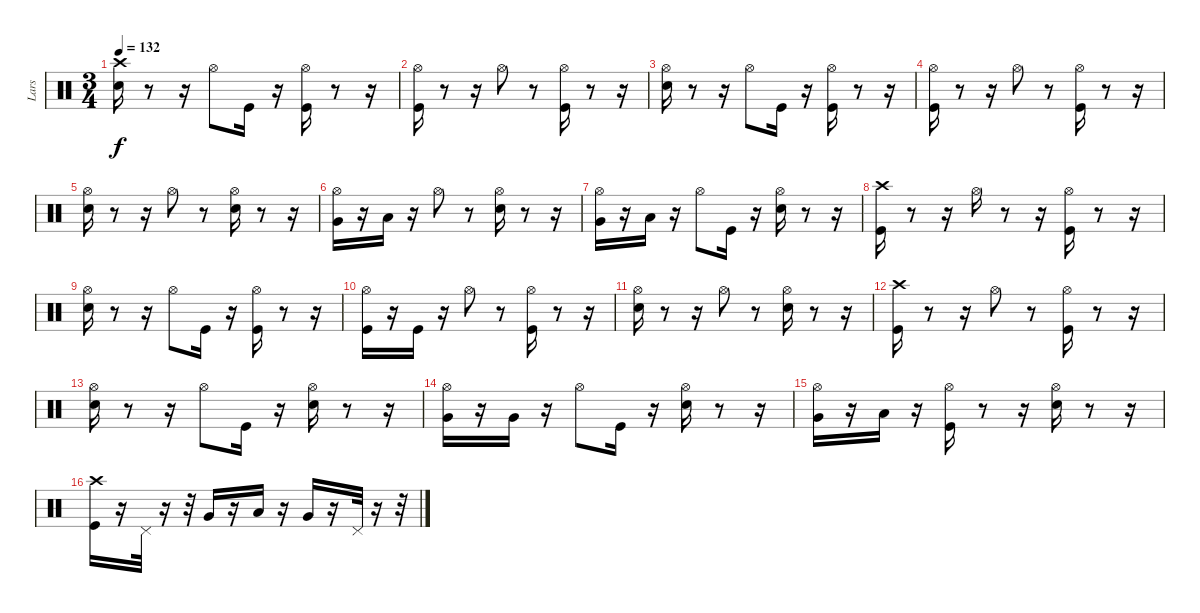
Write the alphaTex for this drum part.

\track ("Lars" "Lars") {instrument percussion}
\staff {score}
\articulation defaults
\ts (3 4)
\tempo 132
\clef neutral
\ks c
("Snare (hit) 2" "Crash high (hit)").16{dy f} r.8 r.16 "Hi-Hat (open)".8 "Kick (hit)".16 r.16 ("Hi-Hat (open)" "Kick (hit)").16 r.8 r.16 |
("Kick (hit)" "Hi-Hat (open)").16 r.8 r.16 "Hi-Hat (open)".8 r.8 ("Hi-Hat (open)" "Kick (hit)").16 r.8 r.16 |
("Hi-Hat (open)" "Snare (hit) 2").16 r.8 r.16 "Hi-Hat (open)".8 "Kick (hit)".16 r.16 ("Hi-Hat (open)" "Kick (hit)").16 r.8 r.16 |
("Hi-Hat (open)" "Kick (hit)").16 r.8 r.16 "Hi-Hat (open)".8 r.8 ("Kick (hit)" "Hi-Hat (open)").16 r.8 r.16 |
("Hi-Hat (open)" "Snare (hit) 2").16 r.8 r.16 "Hi-Hat (open)".8 r.8 ("Snare (hit) 2" "Hi-Hat (open)").16 r.8 r.16 |
("Hi-Hat (open)" "Very Low Tom (hit)").16 r.16 "Low Floor Tom (hit)".16 r.16 "Hi-Hat (open)".8 r.8 ("Hi-Hat (open)" "Snare (hit) 2").16 r.8 r.16 |
("Hi-Hat (open)" "Very Low Tom (hit)").16 r.16 "Low Floor Tom (hit)".16 r.16 "Hi-Hat (open)".8 "Kick (hit)".16 r.16 ("Hi-Hat (open)" "Snare (hit) 2").16 r.8 r.16 |
("Kick (hit)" "Crash high (hit)").16 r.8 r.16 "Hi-Hat (open)".16 r.8 r.16 ("Hi-Hat (open)" "Kick (hit)").16 r.8 r.16 |
("Snare (hit) 2" "Hi-Hat (open)").16 r.8 r.16 "Hi-Hat (open)".8 "Kick (hit)".16 r.16 ("Hi-Hat (open)" "Kick (hit)").16 r.8 r.16 |
("Kick (hit)" "Hi-Hat (open)").16 r.16 "Kick (hit)".16 r.16 "Hi-Hat (open)".8 r.8 ("Hi-Hat (open)" "Kick (hit)").16 r.8 r.16 |
("Hi-Hat (open)" "Snare (hit) 2").16 r.8 r.16 "Hi-Hat (open)".8 r.8 ("Hi-Hat (open)" "Snare (hit) 2").16 r.8 r.16 |
("Kick (hit)" "Crash high (hit)").16 r.8 r.16 "Hi-Hat (open)".8 r.8 ("Kick (hit)" "Hi-Hat (open)").16 r.8 r.16 |
("Hi-Hat (open)" "Snare (hit) 2").16 r.8 r.16 "Hi-Hat (open)".8 "Kick (hit)".16 r.16 ("Hi-Hat (open)" "Snare (hit) 2").16 r.8 r.16 |
("Hi-Hat (open)" "Very Low Tom (hit)").16 r.16 "Very Low Tom (hit)".16 r.16 "Hi-Hat (open)".8 "Kick (hit)".16 r.16 ("Hi-Hat (open)" "Snare (hit) 2").16 r.8 r.16 |
("Hi-Hat (open)" "Very Low Tom (hit)").16 r.16 "Low Floor Tom (hit)".16 r.16 ("Hi-Hat (open)" "Kick (hit)").16 r.8 r.16 ("Hi-Hat (open)" "Snare (hit) 2").16 r.8 r.16 |
("Crash high (hit)" "Kick (hit)").16 r.16 "Pedal Hi-Hat (hit)".32 r.16 r.32 "Very Low Tom (hit)".16 r.16 "Low Tom (hit)".16 r.16 "Very Low Tom (hit)".16 r.16 "Pedal Hi-Hat (hit)".32 r.16 r.32
